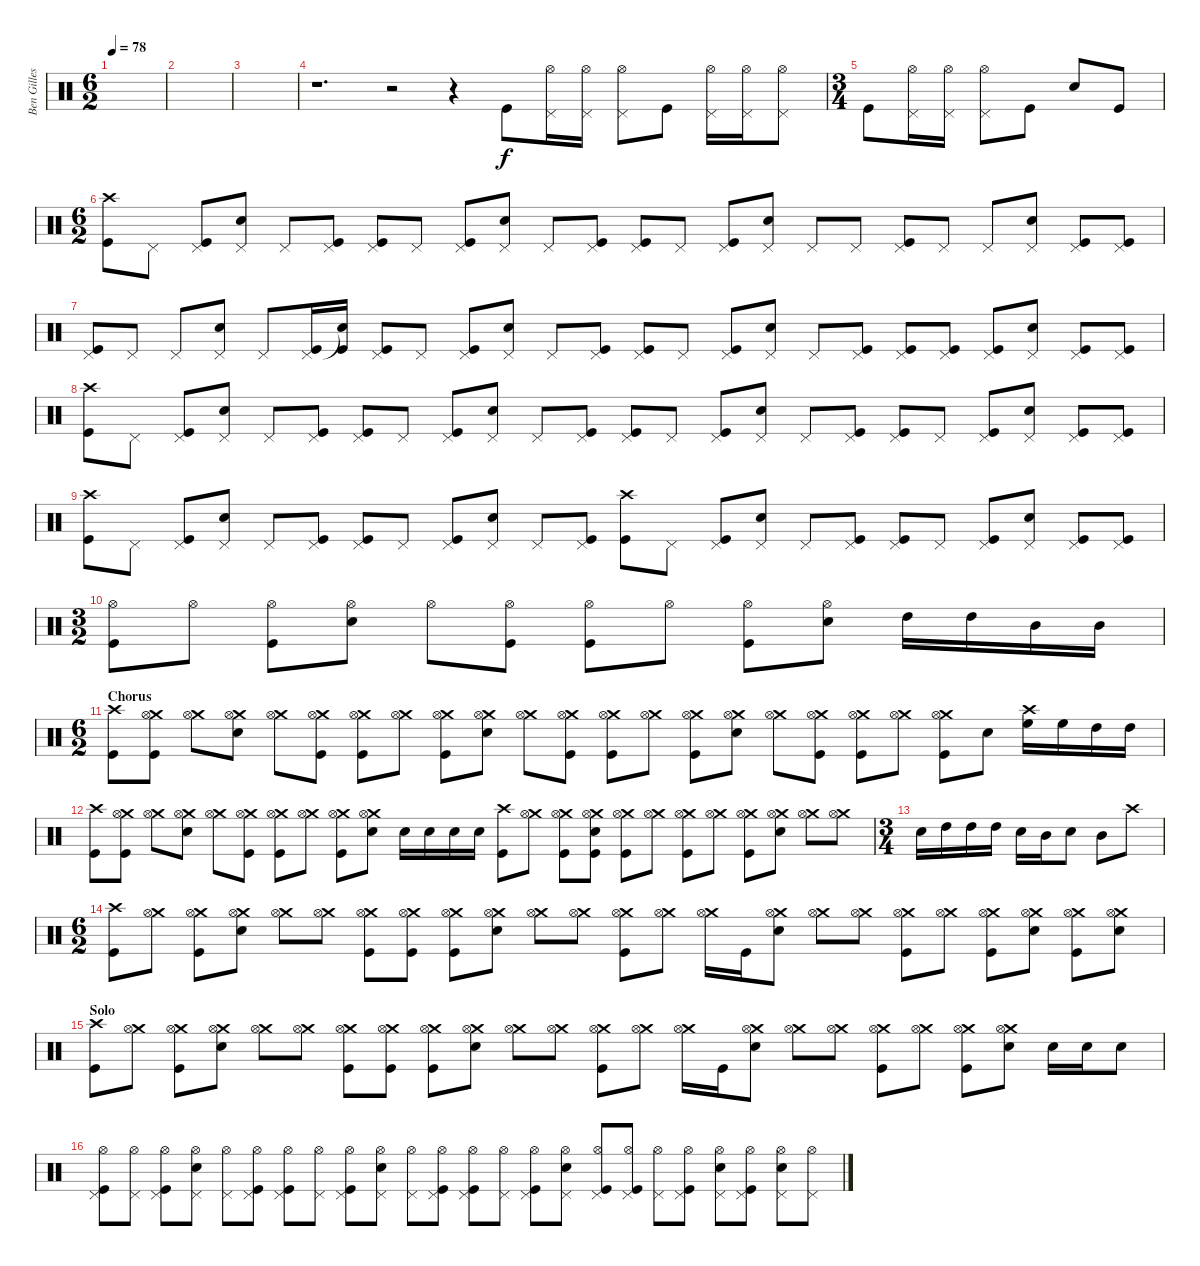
\track ("Ben Gilles" "Ben Gilles") {instrument percussion}
\staff {score}
\articulation defaults
\ts (6 2)
\tempo 78
\clef neutral
\ks c
|
|
|
r.1{d} r.2 r.4 "Kick (hit)".8 ("Hi-Hat (open)" "Pedal Hi-Hat (hit)").16 ("Hi-Hat (open)" "Pedal Hi-Hat (hit)").16 ("Hi-Hat (open)" "Pedal Hi-Hat (hit)").8 "Kick (hit)".8 ("Hi-Hat (open)" "Pedal Hi-Hat (hit)").16 ("Hi-Hat (open)" "Pedal Hi-Hat (hit)").16 ("Hi-Hat (open)" "Pedal Hi-Hat (hit)").8 |
\ts (3 4)
"Kick (hit)".8 ("Hi-Hat (open)" "Pedal Hi-Hat (hit)").16 ("Hi-Hat (open)" "Pedal Hi-Hat (hit)").16 ("Hi-Hat (open)" "Pedal Hi-Hat (hit)").8 "Kick (hit)".8 "Snare (hit) 2".8 "Kick (hit)".8 |
\ts (6 2)
("Crash high (hit)" "Kick (hit)").8 "Pedal Hi-Hat (hit)".8 ("Pedal Hi-Hat (hit)" "Kick (hit)").8 ("Pedal Hi-Hat (hit)" "Snare (hit) 2").8 "Pedal Hi-Hat (hit)".8 ("Pedal Hi-Hat (hit)" "Kick (hit)").8 ("Pedal Hi-Hat (hit)" "Kick (hit)").8 "Pedal Hi-Hat (hit)".8 ("Pedal Hi-Hat (hit)" "Kick (hit)").8 ("Pedal Hi-Hat (hit)" "Snare (hit) 2").8 "Pedal Hi-Hat (hit)".8 ("Pedal Hi-Hat (hit)" "Kick (hit)").8 ("Pedal Hi-Hat (hit)" "Kick (hit)").8 "Pedal Hi-Hat (hit)".8 ("Pedal Hi-Hat (hit)" "Kick (hit)").8 ("Pedal Hi-Hat (hit)" "Snare (hit) 2").8 "Pedal Hi-Hat (hit)".8 "Pedal Hi-Hat (hit)".8 ("Pedal Hi-Hat (hit)" "Kick (hit)").8 "Pedal Hi-Hat (hit)".8 "Pedal Hi-Hat (hit)".8 ("Pedal Hi-Hat (hit)" "Snare (hit) 2").8 ("Pedal Hi-Hat (hit)" "Kick (hit)").8 ("Pedal Hi-Hat (hit)" "Kick (hit)").8 |
("Pedal Hi-Hat (hit)" "Kick (hit)").8 "Pedal Hi-Hat (hit)".8 "Pedal Hi-Hat (hit)".8 ("Pedal Hi-Hat (hit)" "Snare (hit) 2").8 "Pedal Hi-Hat (hit)".8 ("Pedal Hi-Hat (hit)" "Kick (hit)").16 ("Snare (hit)"{t} "Kick (hit)").16 ("Pedal Hi-Hat (hit)" "Kick (hit)").8 "Pedal Hi-Hat (hit)".8 ("Pedal Hi-Hat (hit)" "Kick (hit)").8 ("Pedal Hi-Hat (hit)" "Snare (hit) 2").8 "Pedal Hi-Hat (hit)".8 ("Pedal Hi-Hat (hit)" "Kick (hit)").8 ("Pedal Hi-Hat (hit)" "Kick (hit)").8 "Pedal Hi-Hat (hit)".8 ("Pedal Hi-Hat (hit)" "Kick (hit)").8 ("Pedal Hi-Hat (hit)" "Snare (hit) 2").8 "Pedal Hi-Hat (hit)".8 ("Pedal Hi-Hat (hit)" "Kick (hit)").8 ("Pedal Hi-Hat (hit)" "Kick (hit)").8 ("Pedal Hi-Hat (hit)" "Kick (hit)").8 ("Pedal Hi-Hat (hit)" "Kick (hit)").8 ("Pedal Hi-Hat (hit)" "Snare (hit) 2").8 ("Pedal Hi-Hat (hit)" "Kick (hit)").8 ("Pedal Hi-Hat (hit)" "Kick (hit)").8 |
("Crash high (hit)" "Kick (hit)").8 "Pedal Hi-Hat (hit)".8 ("Pedal Hi-Hat (hit)" "Kick (hit)").8 ("Pedal Hi-Hat (hit)" "Snare (hit) 2").8 "Pedal Hi-Hat (hit)".8 ("Pedal Hi-Hat (hit)" "Kick (hit)").8 ("Pedal Hi-Hat (hit)" "Kick (hit)").8 "Pedal Hi-Hat (hit)".8 ("Pedal Hi-Hat (hit)" "Kick (hit)").8 ("Pedal Hi-Hat (hit)" "Snare (hit) 2").8 "Pedal Hi-Hat (hit)".8 ("Pedal Hi-Hat (hit)" "Kick (hit)").8 ("Pedal Hi-Hat (hit)" "Kick (hit)").8 "Pedal Hi-Hat (hit)".8 ("Pedal Hi-Hat (hit)" "Kick (hit)").8 ("Pedal Hi-Hat (hit)" "Snare (hit) 2").8 "Pedal Hi-Hat (hit)".8 ("Pedal Hi-Hat (hit)" "Kick (hit)").8 ("Pedal Hi-Hat (hit)" "Kick (hit)").8 "Pedal Hi-Hat (hit)".8 ("Pedal Hi-Hat (hit)" "Kick (hit)").8 ("Pedal Hi-Hat (hit)" "Snare (hit) 2").8 ("Pedal Hi-Hat (hit)" "Kick (hit)").8 ("Pedal Hi-Hat (hit)" "Kick (hit)").8 |
("Crash high (hit)" "Kick (hit)").8 "Pedal Hi-Hat (hit)".8 ("Pedal Hi-Hat (hit)" "Kick (hit)").8 ("Pedal Hi-Hat (hit)" "Snare (hit) 2").8 "Pedal Hi-Hat (hit)".8 ("Pedal Hi-Hat (hit)" "Kick (hit)").8 ("Pedal Hi-Hat (hit)" "Kick (hit)").8 "Pedal Hi-Hat (hit)".8 ("Pedal Hi-Hat (hit)" "Kick (hit)").8 ("Pedal Hi-Hat (hit)" "Snare (hit) 2").8 "Pedal Hi-Hat (hit)".8 ("Pedal Hi-Hat (hit)" "Kick (hit)").8 ("Crash high (hit)" "Kick (hit)").8 "Pedal Hi-Hat (hit)".8 ("Pedal Hi-Hat (hit)" "Kick (hit)").8 ("Pedal Hi-Hat (hit)" "Snare (hit) 2").8 "Pedal Hi-Hat (hit)".8 ("Pedal Hi-Hat (hit)" "Kick (hit)").8 ("Pedal Hi-Hat (hit)" "Kick (hit)").8 "Pedal Hi-Hat (hit)".8 ("Pedal Hi-Hat (hit)" "Kick (hit)").8 ("Pedal Hi-Hat (hit)" "Snare (hit) 2").8 ("Pedal Hi-Hat (hit)" "Kick (hit)").8 ("Pedal Hi-Hat (hit)" "Kick (hit)").8 |
\ts (3 2)
("Hi-Hat (open)" "Kick (hit)").8 "Hi-Hat (open)".8 ("Hi-Hat (open)" "Kick (hit)").8 ("Hi-Hat (open)" "Snare (hit) 2").8 "Hi-Hat (open)".8 ("Hi-Hat (open)" "Kick (hit)").8 ("Hi-Hat (open)" "Kick (hit)").8 "Hi-Hat (open)".8 ("Hi-Hat (open)" "Kick (hit)").8 ("Hi-Hat (open)" "Snare (hit) 2").8 "High Tom (hit)".16 "High Tom (hit)".16 "Mid Tom (hit)".16 "Mid Tom (hit)".16 |
\ts (6 2)
\section ("" "Chorus")
("Crash high (hit)" "Kick (hit)").8 ("Crash medium (hit)" "Hi-Hat (open)" "Kick (hit)").8 ("Crash medium (hit)" "Hi-Hat (open)").8 ("Crash medium (hit)" "Hi-Hat (open)" "Snare (hit) 2").8 ("Crash medium (hit)" "Hi-Hat (open)").8 ("Crash medium (hit)" "Hi-Hat (open)" "Kick (hit)").8 ("Crash medium (hit)" "Hi-Hat (open)" "Kick (hit)").8 ("Crash medium (hit)" "Hi-Hat (open)").8 ("Crash medium (hit)" "Hi-Hat (open)" "Kick (hit)").8 ("Crash medium (hit)" "Hi-Hat (open)" "Snare (hit) 2").8 ("Crash medium (hit)" "Hi-Hat (open)").8 ("Crash medium (hit)" "Hi-Hat (open)" "Kick (hit)").8 ("Crash medium (hit)" "Hi-Hat (open)" "Kick (hit)").8 ("Crash medium (hit)" "Hi-Hat (open)").8 ("Crash medium (hit)" "Hi-Hat (open)" "Kick (hit)").8 ("Crash medium (hit)" "Hi-Hat (open)" "Snare (hit) 2").8 ("Crash medium (hit)" "Hi-Hat (open)").8 ("Crash medium (hit)" "Hi-Hat (open)" "Kick (hit)").8 ("Crash medium (hit)" "Hi-Hat (open)" "Kick (hit)").8 ("Crash medium (hit)" "Hi-Hat (open)").8 ("Crash medium (hit)" "Hi-Hat (open)" "Kick (hit)").8 "Snare (hit) 2".8 ("Crash high (hit)" "High Floor Tom (hit)").16 "High Floor Tom (hit)".16 "High Tom (hit)".16 "High Tom (hit)".16 |
("Crash high (hit)" "Kick (hit)").8 ("Crash medium (hit)" "Hi-Hat (open)" "Kick (hit)").8 ("Crash medium (hit)" "Hi-Hat (open)").8 ("Crash medium (hit)" "Hi-Hat (open)" "Snare (hit) 2").8 ("Crash medium (hit)" "Hi-Hat (open)").8 ("Crash medium (hit)" "Hi-Hat (open)" "Kick (hit)").8 ("Crash medium (hit)" "Hi-Hat (open)" "Kick (hit)").8 ("Crash medium (hit)" "Hi-Hat (open)").8 ("Crash medium (hit)" "Hi-Hat (open)" "Kick (hit)").8 ("Crash medium (hit)" "Hi-Hat (open)" "Snare (hit) 2").8 "Snare (hit) 2".16 "Snare (hit) 2".16 "Snare (hit) 2".16 "Snare (hit) 2".16 ("Crash high (hit)" "Kick (hit)").8 ("Crash medium (hit)" "Hi-Hat (open)").8 ("Crash medium (hit)" "Hi-Hat (open)" "Kick (hit)").8 ("Crash medium (hit)" "Hi-Hat (open)" "Snare (hit) 2" "Kick (hit)").8 ("Crash medium (hit)" "Hi-Hat (open)" "Kick (hit)").8 ("Crash medium (hit)" "Hi-Hat (open)").8 ("Crash medium (hit)" "Hi-Hat (open)" "Kick (hit)").8 ("Crash medium (hit)" "Hi-Hat (open)").8 ("Crash medium (hit)" "Hi-Hat (open)" "Kick (hit)").8 ("Crash medium (hit)" "Hi-Hat (open)" "Snare (hit) 2").8 ("Crash medium (hit)" "Hi-Hat (open)").8 ("Crash medium (hit)" "Hi-Hat (open)").8 |
\ts (3 4)
"Snare (hit) 2".16 "High Tom (hit)".16 "High Tom (hit)".16 "High Tom (hit)".16 "Snare (hit) 2".16 "Mid Tom (hit)".16 "Snare (hit) 2".8 "Mid Tom (hit)".8 "Crash high (hit)".8 |
\ts (6 2)
("Crash high (hit)" "Kick (hit)").8 ("Crash medium (hit)" "Hi-Hat (open)").8 ("Crash medium (hit)" "Hi-Hat (open)" "Kick (hit)").8 ("Crash medium (hit)" "Hi-Hat (open)" "Snare (hit) 2").8 ("Crash medium (hit)" "Hi-Hat (open)").8 ("Crash medium (hit)" "Hi-Hat (open)").8 ("Crash medium (hit)" "Hi-Hat (open)" "Kick (hit)").8 ("Crash medium (hit)" "Hi-Hat (open)" "Kick (hit)").8 ("Crash medium (hit)" "Hi-Hat (open)" "Kick (hit)").8 ("Crash medium (hit)" "Hi-Hat (open)" "Snare (hit) 2").8 ("Crash medium (hit)" "Hi-Hat (open)").8 ("Crash medium (hit)" "Hi-Hat (open)").8 ("Crash medium (hit)" "Hi-Hat (open)" "Kick (hit)").8 ("Crash medium (hit)" "Hi-Hat (open)").8 ("Crash medium (hit)" "Hi-Hat (open)").16 "Kick (hit)".16 ("Crash medium (hit)" "Hi-Hat (open)" "Snare (hit) 2").8 ("Crash medium (hit)" "Hi-Hat (open)").8 ("Crash medium (hit)" "Hi-Hat (open)").8 ("Crash medium (hit)" "Hi-Hat (open)" "Kick (hit)").8 ("Crash medium (hit)" "Hi-Hat (open)").8 ("Crash medium (hit)" "Hi-Hat (open)" "Kick (hit)").8 ("Crash medium (hit)" "Hi-Hat (open)" "Snare (hit) 2").8 ("Crash medium (hit)" "Hi-Hat (open)" "Kick (hit)").8 ("Crash medium (hit)" "Hi-Hat (open)" "Snare (hit) 2").8 |
\section ("" "Solo")
("Crash high (hit)" "Kick (hit)").8 ("Crash medium (hit)" "Hi-Hat (open)").8 ("Crash medium (hit)" "Hi-Hat (open)" "Kick (hit)").8 ("Crash medium (hit)" "Hi-Hat (open)" "Snare (hit) 2").8 ("Crash medium (hit)" "Hi-Hat (open)").8 ("Crash medium (hit)" "Hi-Hat (open)").8 ("Crash medium (hit)" "Hi-Hat (open)" "Kick (hit)").8 ("Crash medium (hit)" "Hi-Hat (open)" "Kick (hit)").8 ("Crash medium (hit)" "Hi-Hat (open)" "Kick (hit)").8 ("Crash medium (hit)" "Hi-Hat (open)" "Snare (hit) 2").8 ("Crash medium (hit)" "Hi-Hat (open)").8 ("Crash medium (hit)" "Hi-Hat (open)").8 ("Crash medium (hit)" "Hi-Hat (open)" "Kick (hit)").8 ("Crash medium (hit)" "Hi-Hat (open)").8 ("Crash medium (hit)" "Hi-Hat (open)").16 "Kick (hit)".16 ("Crash medium (hit)" "Hi-Hat (open)" "Snare (hit) 2").8 ("Crash medium (hit)" "Hi-Hat (open)").8 ("Crash medium (hit)" "Hi-Hat (open)").8 ("Crash medium (hit)" "Hi-Hat (open)" "Kick (hit)").8 ("Crash medium (hit)" "Hi-Hat (open)").8 ("Crash medium (hit)" "Hi-Hat (open)" "Kick (hit)").8 ("Crash medium (hit)" "Hi-Hat (open)" "Snare (hit) 2").8 "Snare (hit) 2".16 "Snare (hit) 2".16 "Snare (hit) 2".8 |
("Pedal Hi-Hat (hit)" "Hi-Hat (open)" "Kick (hit)").8 ("Pedal Hi-Hat (hit)" "Hi-Hat (open)").8 ("Pedal Hi-Hat (hit)" "Hi-Hat (open)" "Kick (hit)").8 ("Pedal Hi-Hat (hit)" "Hi-Hat (open)" "Snare (hit) 2").8 ("Pedal Hi-Hat (hit)" "Hi-Hat (open)").8 ("Pedal Hi-Hat (hit)" "Hi-Hat (open)" "Kick (hit)").8 ("Pedal Hi-Hat (hit)" "Hi-Hat (open)" "Kick (hit)").8 ("Pedal Hi-Hat (hit)" "Hi-Hat (open)").8 ("Pedal Hi-Hat (hit)" "Hi-Hat (open)" "Kick (hit)").8 ("Pedal Hi-Hat (hit)" "Hi-Hat (open)" "Snare (hit) 2").8 ("Pedal Hi-Hat (hit)" "Hi-Hat (open)").8 ("Pedal Hi-Hat (hit)" "Hi-Hat (open)" "Kick (hit)").8 ("Pedal Hi-Hat (hit)" "Hi-Hat (open)" "Kick (hit)").8 ("Pedal Hi-Hat (hit)" "Hi-Hat (open)").8 ("Pedal Hi-Hat (hit)" "Hi-Hat (open)" "Kick (hit)").8 ("Pedal Hi-Hat (hit)" "Hi-Hat (open)" "Snare (hit) 2").8 ("Pedal Hi-Hat (hit)" "Hi-Hat (open)" "Kick (hit)").8 ("Pedal Hi-Hat (hit)" "Hi-Hat (open)" "Kick (hit)").8 ("Pedal Hi-Hat (hit)" "Hi-Hat (open)").8 ("Pedal Hi-Hat (hit)" "Hi-Hat (open)" "Kick (hit)").8 ("Pedal Hi-Hat (hit)" "Hi-Hat (open)" "Snare (hit) 2").8 ("Pedal Hi-Hat (hit)" "Hi-Hat (open)" "Kick (hit)").8 ("Pedal Hi-Hat (hit)" "Hi-Hat (open)" "Snare (hit) 2").8 ("Pedal Hi-Hat (hit)" "Hi-Hat (open)").8
